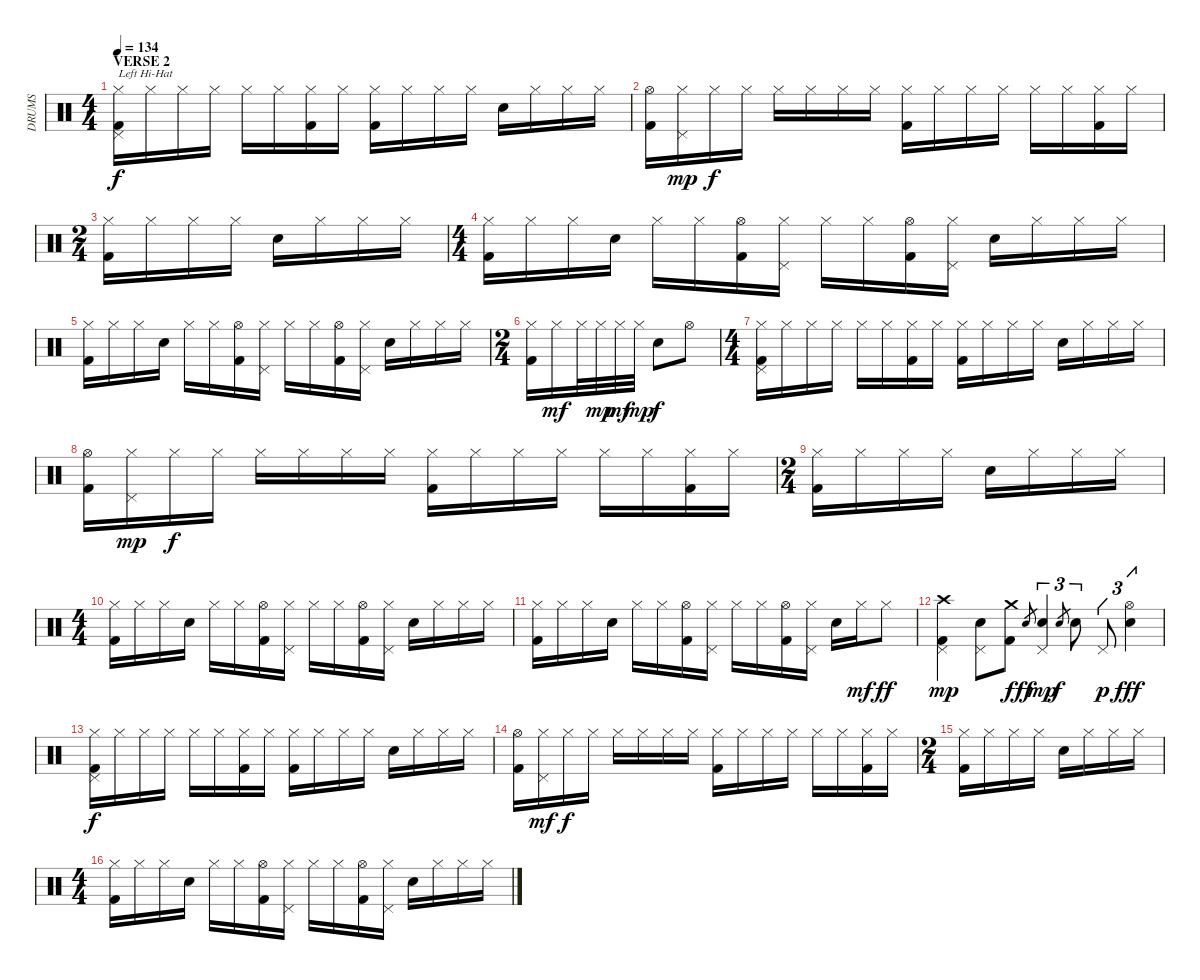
\track ("DRUMS" "DRUMS") {instrument percussion}
\staff {score}
\articulation defaults
\ts (4 4)
\section ("" "VERSE 2")
\tempo 134
\clef neutral
\ks c
("Hi-Hat (closed)" "Pedal Hi-Hat (hit)" "Kick (hit) 2").16{txt "Left Hi-Hat" dy f} "Hi-Hat (closed)".16 "Hi-Hat (closed)".16 "Hi-Hat (closed)".16 "Hi-Hat (closed)".16 "Hi-Hat (closed)".16 ("Hi-Hat (closed)" "Kick (hit) 2").16 "Hi-Hat (closed)".16 ("Hi-Hat (closed)" "Kick (hit) 2").16 "Hi-Hat (closed)".16 "Hi-Hat (closed)".16 "Hi-Hat (closed)".16 "Electric Snare (hit)".16 "Hi-Hat (closed)".16 "Hi-Hat (closed)".16 "Hi-Hat (closed)".16 |
("Hi-Hat (open)" "Kick (hit) 2").16 ("Hi-Hat (closed)" "Pedal Hi-Hat (hit)").16{dy mp} "Hi-Hat (closed)".16{dy f} "Hi-Hat (closed)".16 "Hi-Hat (closed)".16 "Hi-Hat (closed)".16 "Hi-Hat (closed)".16 "Hi-Hat (closed)".16 ("Hi-Hat (closed)" "Kick (hit) 2").16 "Hi-Hat (closed)".16 "Hi-Hat (closed)".16 "Hi-Hat (closed)".16 "Hi-Hat (closed)".16 "Hi-Hat (closed)".16 ("Hi-Hat (closed)" "Kick (hit) 2").16 "Hi-Hat (closed)".16 |
\ts (2 4)
("Hi-Hat (closed)" "Kick (hit) 2").16 "Hi-Hat (closed)".16 "Hi-Hat (closed)".16 "Hi-Hat (closed)".16 "Electric Snare (hit)".16 "Hi-Hat (closed)".16 "Hi-Hat (closed)".16 "Hi-Hat (closed)".16 |
\ts (4 4)
("Hi-Hat (closed)" "Kick (hit) 2").16 "Hi-Hat (closed)".16 "Hi-Hat (closed)".16 "Electric Snare (hit)".16 "Hi-Hat (closed)".16 "Hi-Hat (closed)".16 ("Hi-Hat (open)" "Kick (hit) 2").16 ("Hi-Hat (closed)" "Pedal Hi-Hat (hit)").16 "Hi-Hat (closed)".16 "Hi-Hat (closed)".16 ("Hi-Hat (open)" "Kick (hit) 2").16 ("Hi-Hat (closed)" "Pedal Hi-Hat (hit)").16 "Electric Snare (hit)".16 "Hi-Hat (closed)".16 "Hi-Hat (closed)".16 "Hi-Hat (closed)".16 |
("Hi-Hat (closed)" "Kick (hit) 2").16 "Hi-Hat (closed)".16 "Hi-Hat (closed)".16 "Electric Snare (hit)".16 "Hi-Hat (closed)".16 "Hi-Hat (closed)".16 ("Hi-Hat (open)" "Kick (hit) 2").16 ("Hi-Hat (closed)" "Pedal Hi-Hat (hit)").16 "Hi-Hat (closed)".16 "Hi-Hat (closed)".16 ("Hi-Hat (open)" "Kick (hit) 2").16 ("Hi-Hat (closed)" "Pedal Hi-Hat (hit)").16 "Electric Snare (hit)".16 "Hi-Hat (closed)".16 "Hi-Hat (closed)".16 "Hi-Hat (closed)".16 |
\ts (2 4)
("Hi-Hat (closed)" "Kick (hit) 2").16 "Hi-Hat (closed)".16{dy mf} "Hi-Hat (closed)".32 "Hi-Hat (closed)".32{dy mp} "Hi-Hat (closed)".32{dy mf} "Hi-Hat (closed)".32{dy mp} "Electric Snare (hit)".8{dy f} "Hi-Hat (open)".8 |
\ts (4 4)
("Hi-Hat (closed)" "Pedal Hi-Hat (hit)" "Kick (hit) 2").16 "Hi-Hat (closed)".16 "Hi-Hat (closed)".16 "Hi-Hat (closed)".16 "Hi-Hat (closed)".16 "Hi-Hat (closed)".16 ("Hi-Hat (closed)" "Kick (hit) 2").16 "Hi-Hat (closed)".16 ("Hi-Hat (closed)" "Kick (hit) 2").16 "Hi-Hat (closed)".16 "Hi-Hat (closed)".16 "Hi-Hat (closed)".16 "Electric Snare (hit)".16 "Hi-Hat (closed)".16 "Hi-Hat (closed)".16 "Hi-Hat (closed)".16 |
("Hi-Hat (open)" "Kick (hit) 2").16 ("Hi-Hat (closed)" "Pedal Hi-Hat (hit)").16{dy mp} "Hi-Hat (closed)".16{dy f} "Hi-Hat (closed)".16 "Hi-Hat (closed)".16 "Hi-Hat (closed)".16 "Hi-Hat (closed)".16 "Hi-Hat (closed)".16 ("Hi-Hat (closed)" "Kick (hit) 2").16 "Hi-Hat (closed)".16 "Hi-Hat (closed)".16 "Hi-Hat (closed)".16 "Hi-Hat (closed)".16 "Hi-Hat (closed)".16 ("Hi-Hat (closed)" "Kick (hit) 2").16 "Hi-Hat (closed)".16 |
\ts (2 4)
("Hi-Hat (closed)" "Kick (hit) 2").16 "Hi-Hat (closed)".16 "Hi-Hat (closed)".16 "Hi-Hat (closed)".16 "Electric Snare (hit)".16 "Hi-Hat (closed)".16 "Hi-Hat (closed)".16 "Hi-Hat (closed)".16 |
\ts (4 4)
("Hi-Hat (closed)" "Kick (hit) 2").16 "Hi-Hat (closed)".16 "Hi-Hat (closed)".16 "Electric Snare (hit)".16 "Hi-Hat (closed)".16 "Hi-Hat (closed)".16 ("Hi-Hat (open)" "Kick (hit) 2").16 ("Hi-Hat (closed)" "Pedal Hi-Hat (hit)").16 "Hi-Hat (closed)".16 "Hi-Hat (closed)".16 ("Hi-Hat (open)" "Kick (hit) 2").16 ("Hi-Hat (closed)" "Pedal Hi-Hat (hit)").16 "Electric Snare (hit)".16 "Hi-Hat (closed)".16 "Hi-Hat (closed)".16 "Hi-Hat (closed)".16 |
("Hi-Hat (closed)" "Kick (hit) 2").16 "Hi-Hat (closed)".16 "Hi-Hat (closed)".16 "Electric Snare (hit)".16 "Hi-Hat (closed)".16 "Hi-Hat (closed)".16 ("Hi-Hat (open)" "Kick (hit) 2").16 ("Hi-Hat (closed)" "Pedal Hi-Hat (hit)").16 "Hi-Hat (closed)".16 "Hi-Hat (closed)".16 ("Hi-Hat (open)" "Kick (hit) 2").16 ("Hi-Hat (closed)" "Pedal Hi-Hat (hit)").16 "Electric Snare (hit)".16 "Hi-Hat (closed)".16{dy mf} "Hi-Hat (closed)".8{dy ff} |
("Crash high (hit)" "Pedal Hi-Hat (hit)" "Kick (hit) 2").4{dy mp} ("Electric Snare (hit)" "Pedal Hi-Hat (hit)").8 ("Crash medium (hit)" "Kick (hit) 2").8{dy f} "Electric Snare (hit)"{sl}.8{gr dy ff} ("Electric Snare (hit)" "Pedal Hi-Hat (hit)").4{tu (3 2) dy mp} "Electric Snare (hit)"{sl}.8{gr dy f} "Electric Snare (hit)".8{tu (3 2)} "Pedal Hi-Hat (hit)".8{tu (3 2) dy p} ("Hi-Hat (open)" "Electric Snare (hit)").4{tu (3 2) dy fff} |
("Hi-Hat (closed)" "Pedal Hi-Hat (hit)" "Kick (hit) 2").16{dy f} "Hi-Hat (closed)".16 "Hi-Hat (closed)".16 "Hi-Hat (closed)".16 "Hi-Hat (closed)".16 "Hi-Hat (closed)".16 ("Hi-Hat (closed)" "Kick (hit) 2").16 "Hi-Hat (closed)".16 ("Hi-Hat (closed)" "Kick (hit) 2").16 "Hi-Hat (closed)".16 "Hi-Hat (closed)".16 "Hi-Hat (closed)".16 "Electric Snare (hit)".16 "Hi-Hat (closed)".16 "Hi-Hat (closed)".16 "Hi-Hat (closed)".16 |
("Hi-Hat (open)" "Kick (hit) 2").16 ("Hi-Hat (closed)" "Pedal Hi-Hat (hit)").16{dy mf} "Hi-Hat (closed)".16{dy f} "Hi-Hat (closed)".16 "Hi-Hat (closed)".16 "Hi-Hat (closed)".16 "Hi-Hat (closed)".16 "Hi-Hat (closed)".16 ("Hi-Hat (closed)" "Kick (hit) 2").16 "Hi-Hat (closed)".16 "Hi-Hat (closed)".16 "Hi-Hat (closed)".16 "Hi-Hat (closed)".16 "Hi-Hat (closed)".16 ("Hi-Hat (closed)" "Kick (hit) 2").16 "Hi-Hat (closed)".16 |
\ts (2 4)
("Hi-Hat (closed)" "Kick (hit) 2").16 "Hi-Hat (closed)".16 "Hi-Hat (closed)".16 "Hi-Hat (closed)".16 "Electric Snare (hit)".16 "Hi-Hat (closed)".16 "Hi-Hat (closed)".16 "Hi-Hat (closed)".16 |
\ts (4 4)
("Hi-Hat (closed)" "Kick (hit) 2").16 "Hi-Hat (closed)".16 "Hi-Hat (closed)".16 "Electric Snare (hit)".16 "Hi-Hat (closed)".16 "Hi-Hat (closed)".16 ("Hi-Hat (open)" "Kick (hit) 2").16 ("Hi-Hat (closed)" "Pedal Hi-Hat (hit)").16 "Hi-Hat (closed)".16 "Hi-Hat (closed)".16 ("Hi-Hat (open)" "Kick (hit) 2").16 ("Hi-Hat (closed)" "Pedal Hi-Hat (hit)").16 "Electric Snare (hit)".16 "Hi-Hat (closed)".16 "Hi-Hat (closed)".16 "Hi-Hat (closed)".16
